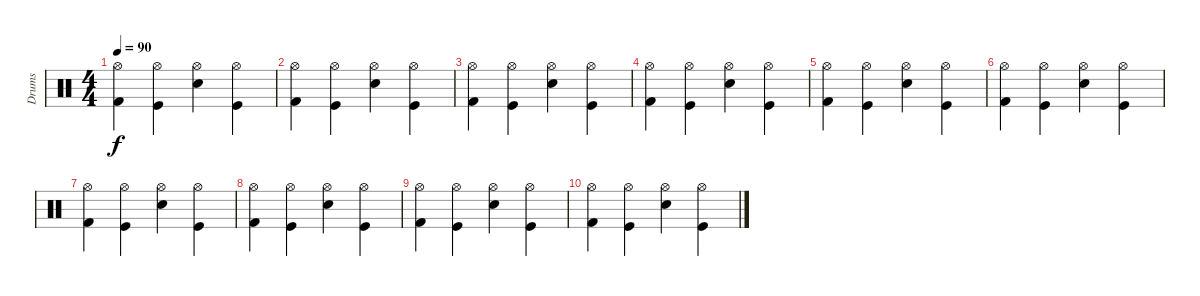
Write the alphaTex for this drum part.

\track ("Drums" "Drums") {instrument percussion}
\staff {score}
\articulation defaults
\ts (4 4)
\tempo 90
\clef neutral
\ks c
("Hi-Hat (open)" "Kick (hit) 2").4{dy f} ("Hi-Hat (open)" "Kick (hit)").4 ("Hi-Hat (open)" "Snare (hit) 2").4 ("Hi-Hat (open)" "Kick (hit)").4 |
("Hi-Hat (open)" "Kick (hit) 2").4 ("Hi-Hat (open)" "Kick (hit)").4 ("Hi-Hat (open)" "Snare (hit) 2").4 ("Hi-Hat (open)" "Kick (hit)").4 |
("Hi-Hat (open)" "Kick (hit) 2").4 ("Hi-Hat (open)" "Kick (hit)").4 ("Hi-Hat (open)" "Snare (hit) 2").4 ("Hi-Hat (open)" "Kick (hit)").4 |
("Hi-Hat (open)" "Kick (hit) 2").4 ("Hi-Hat (open)" "Kick (hit)").4 ("Hi-Hat (open)" "Snare (hit) 2").4 ("Hi-Hat (open)" "Kick (hit)").4 |
("Hi-Hat (open)" "Kick (hit) 2").4 ("Hi-Hat (open)" "Kick (hit)").4 ("Hi-Hat (open)" "Snare (hit) 2").4 ("Hi-Hat (open)" "Kick (hit)").4 |
("Hi-Hat (open)" "Kick (hit) 2").4 ("Hi-Hat (open)" "Kick (hit)").4 ("Hi-Hat (open)" "Snare (hit) 2").4 ("Hi-Hat (open)" "Kick (hit)").4 |
("Hi-Hat (open)" "Kick (hit) 2").4 ("Hi-Hat (open)" "Kick (hit)").4 ("Hi-Hat (open)" "Snare (hit) 2").4 ("Hi-Hat (open)" "Kick (hit)").4 |
("Hi-Hat (open)" "Kick (hit) 2").4 ("Hi-Hat (open)" "Kick (hit)").4 ("Hi-Hat (open)" "Snare (hit) 2").4 ("Hi-Hat (open)" "Kick (hit)").4 |
("Hi-Hat (open)" "Kick (hit) 2").4 ("Hi-Hat (open)" "Kick (hit)").4 ("Hi-Hat (open)" "Snare (hit) 2").4 ("Hi-Hat (open)" "Kick (hit)").4 |
("Hi-Hat (open)" "Kick (hit) 2").4 ("Hi-Hat (open)" "Kick (hit)").4 ("Hi-Hat (open)" "Snare (hit) 2").4 ("Hi-Hat (open)" "Kick (hit)").4
